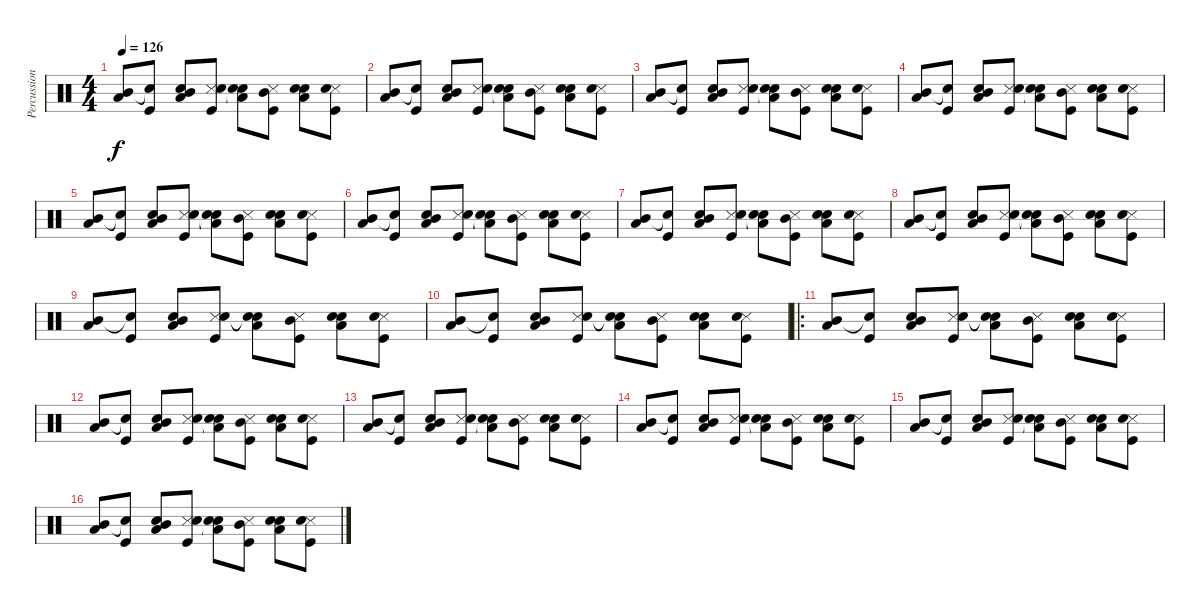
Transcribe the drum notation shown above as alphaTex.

\track ("Percussions" "Percussion") {instrument percussion}
\staff {score}
\articulation defaults
\ts (4 4)
\tempo 126
\clef neutral
\ks c
("Mid Tom (hit)" "Low Floor Tom (hit)").8{dy f} ("Snare (hit)"{t} "Kick (hit)").8 ("Snare (hit) 2" "Mid Tom (hit)" "Low Floor Tom (hit)").8 ("Snare (side stick) 3" "Electric Snare (hit)" "Kick (hit)").8 ("Snare (hit)"{t} "Snare (hit)"{t} "Low Floor Tom (hit)").8 ("Snare (side stick) 3" "Mid Tom (hit)" "Kick (hit)").8 ("Electric Snare (hit)" "Snare (hit) 2" "Low Floor Tom (hit)").8 ("Snare (side stick) 3" "Snare (hit) 2" "Kick (hit)").8 |
("Mid Tom (hit)" "Low Floor Tom (hit)").8 ("Snare (hit)"{t} "Kick (hit)").8 ("Snare (hit) 2" "Mid Tom (hit)" "Low Floor Tom (hit)").8 ("Snare (side stick) 3" "Electric Snare (hit)" "Kick (hit)").8 ("Snare (hit)"{t} "Snare (hit)"{t} "Low Floor Tom (hit)").8 ("Snare (side stick) 3" "Mid Tom (hit)" "Kick (hit)").8 ("Electric Snare (hit)" "Snare (hit) 2" "Low Floor Tom (hit)").8 ("Snare (side stick) 3" "Snare (hit) 2" "Kick (hit)").8 |
("Mid Tom (hit)" "Low Floor Tom (hit)").8 ("Snare (hit)"{t} "Kick (hit)").8 ("Snare (hit) 2" "Mid Tom (hit)" "Low Floor Tom (hit)").8 ("Snare (side stick) 3" "Electric Snare (hit)" "Kick (hit)").8 ("Snare (hit)"{t} "Snare (hit)"{t} "Low Floor Tom (hit)").8 ("Snare (side stick) 3" "Mid Tom (hit)" "Kick (hit)").8 ("Electric Snare (hit)" "Snare (hit) 2" "Low Floor Tom (hit)").8 ("Snare (side stick) 3" "Snare (hit) 2" "Kick (hit)").8 |
("Mid Tom (hit)" "Low Floor Tom (hit)").8 ("Snare (hit)"{t} "Kick (hit)").8 ("Snare (hit) 2" "Mid Tom (hit)" "Low Floor Tom (hit)").8 ("Snare (side stick) 3" "Electric Snare (hit)" "Kick (hit)").8 ("Snare (hit)"{t} "Snare (hit)"{t} "Low Floor Tom (hit)").8 ("Snare (side stick) 3" "Mid Tom (hit)" "Kick (hit)").8 ("Electric Snare (hit)" "Snare (hit) 2" "Low Floor Tom (hit)").8 ("Snare (side stick) 3" "Snare (hit) 2" "Kick (hit)").8 |
("Mid Tom (hit)" "Low Floor Tom (hit)").8 ("Snare (hit)"{t} "Kick (hit)").8 ("Snare (hit) 2" "Mid Tom (hit)" "Low Floor Tom (hit)").8 ("Snare (side stick) 3" "Electric Snare (hit)" "Kick (hit)").8 ("Snare (hit)"{t} "Snare (hit)"{t} "Low Floor Tom (hit)").8 ("Snare (side stick) 3" "Mid Tom (hit)" "Kick (hit)").8 ("Electric Snare (hit)" "Snare (hit) 2" "Low Floor Tom (hit)").8 ("Snare (side stick) 3" "Snare (hit) 2" "Kick (hit)").8 |
("Mid Tom (hit)" "Low Floor Tom (hit)").8 ("Snare (hit)"{t} "Kick (hit)").8 ("Snare (hit) 2" "Mid Tom (hit)" "Low Floor Tom (hit)").8 ("Snare (side stick) 3" "Electric Snare (hit)" "Kick (hit)").8 ("Snare (hit)"{t} "Snare (hit)"{t} "Low Floor Tom (hit)").8 ("Snare (side stick) 3" "Mid Tom (hit)" "Kick (hit)").8 ("Electric Snare (hit)" "Snare (hit) 2" "Low Floor Tom (hit)").8 ("Snare (side stick) 3" "Snare (hit) 2" "Kick (hit)").8 |
("Mid Tom (hit)" "Low Floor Tom (hit)").8 ("Snare (hit)"{t} "Kick (hit)").8 ("Snare (hit) 2" "Mid Tom (hit)" "Low Floor Tom (hit)").8 ("Snare (side stick) 3" "Electric Snare (hit)" "Kick (hit)").8 ("Snare (hit)"{t} "Snare (hit)"{t} "Low Floor Tom (hit)").8 ("Snare (side stick) 3" "Mid Tom (hit)" "Kick (hit)").8 ("Electric Snare (hit)" "Snare (hit) 2" "Low Floor Tom (hit)").8 ("Snare (side stick) 3" "Snare (hit) 2" "Kick (hit)").8 |
("Mid Tom (hit)" "Low Floor Tom (hit)").8 ("Snare (hit)"{t} "Kick (hit)").8 ("Snare (hit) 2" "Mid Tom (hit)" "Low Floor Tom (hit)").8 ("Snare (side stick) 3" "Electric Snare (hit)" "Kick (hit)").8 ("Snare (hit)"{t} "Snare (hit)"{t} "Low Floor Tom (hit)").8 ("Snare (side stick) 3" "Mid Tom (hit)" "Kick (hit)").8 ("Electric Snare (hit)" "Snare (hit) 2" "Low Floor Tom (hit)").8 ("Snare (side stick) 3" "Snare (hit) 2" "Kick (hit)").8 |
("Mid Tom (hit)" "Low Floor Tom (hit)").8 ("Snare (hit)"{t} "Kick (hit)").8 ("Snare (hit) 2" "Mid Tom (hit)" "Low Floor Tom (hit)").8 ("Snare (side stick) 3" "Electric Snare (hit)" "Kick (hit)").8 ("Snare (hit)"{t} "Snare (hit)"{t} "Low Floor Tom (hit)").8 ("Snare (side stick) 3" "Mid Tom (hit)" "Kick (hit)").8 ("Electric Snare (hit)" "Snare (hit) 2" "Low Floor Tom (hit)").8 ("Snare (side stick) 3" "Snare (hit) 2" "Kick (hit)").8 |
("Mid Tom (hit)" "Low Floor Tom (hit)").8 ("Snare (hit)"{t} "Kick (hit)").8 ("Snare (hit) 2" "Mid Tom (hit)" "Low Floor Tom (hit)").8 ("Snare (side stick) 3" "Electric Snare (hit)" "Kick (hit)").8 ("Snare (hit)"{t} "Snare (hit)"{t} "Low Floor Tom (hit)").8 ("Snare (side stick) 3" "Mid Tom (hit)" "Kick (hit)").8 ("Electric Snare (hit)" "Snare (hit) 2" "Low Floor Tom (hit)").8 ("Snare (side stick) 3" "Snare (hit) 2" "Kick (hit)").8 |
\ro
("Mid Tom (hit)" "Low Floor Tom (hit)").8 ("Snare (hit)"{t} "Kick (hit)").8 ("Snare (hit) 2" "Mid Tom (hit)" "Low Floor Tom (hit)").8 ("Snare (side stick) 3" "Electric Snare (hit)" "Kick (hit)").8 ("Snare (hit)"{t} "Snare (hit)"{t} "Low Floor Tom (hit)").8 ("Snare (side stick) 3" "Mid Tom (hit)" "Kick (hit)").8 ("Electric Snare (hit)" "Snare (hit) 2" "Low Floor Tom (hit)").8 ("Snare (side stick) 3" "Snare (hit) 2" "Kick (hit)").8 |
("Mid Tom (hit)" "Low Floor Tom (hit)").8 ("Snare (hit)"{t} "Kick (hit)").8 ("Snare (hit) 2" "Mid Tom (hit)" "Low Floor Tom (hit)").8 ("Snare (side stick) 3" "Electric Snare (hit)" "Kick (hit)").8 ("Snare (hit)"{t} "Snare (hit)"{t} "Low Floor Tom (hit)").8 ("Snare (side stick) 3" "Mid Tom (hit)" "Kick (hit)").8 ("Electric Snare (hit)" "Snare (hit) 2" "Low Floor Tom (hit)").8 ("Snare (side stick) 3" "Snare (hit) 2" "Kick (hit)").8 |
("Mid Tom (hit)" "Low Floor Tom (hit)").8 ("Snare (hit)"{t} "Kick (hit)").8 ("Snare (hit) 2" "Mid Tom (hit)" "Low Floor Tom (hit)").8 ("Snare (side stick) 3" "Electric Snare (hit)" "Kick (hit)").8 ("Snare (hit)"{t} "Snare (hit)"{t} "Low Floor Tom (hit)").8 ("Snare (side stick) 3" "Mid Tom (hit)" "Kick (hit)").8 ("Electric Snare (hit)" "Snare (hit) 2" "Low Floor Tom (hit)").8 ("Snare (side stick) 3" "Snare (hit) 2" "Kick (hit)").8 |
("Mid Tom (hit)" "Low Floor Tom (hit)").8 ("Snare (hit)"{t} "Kick (hit)").8 ("Snare (hit) 2" "Mid Tom (hit)" "Low Floor Tom (hit)").8 ("Snare (side stick) 3" "Electric Snare (hit)" "Kick (hit)").8 ("Snare (hit)"{t} "Snare (hit)"{t} "Low Floor Tom (hit)").8 ("Snare (side stick) 3" "Mid Tom (hit)" "Kick (hit)").8 ("Electric Snare (hit)" "Snare (hit) 2" "Low Floor Tom (hit)").8 ("Snare (side stick) 3" "Snare (hit) 2" "Kick (hit)").8 |
("Mid Tom (hit)" "Low Floor Tom (hit)").8 ("Snare (hit)"{t} "Kick (hit)").8 ("Snare (hit) 2" "Mid Tom (hit)" "Low Floor Tom (hit)").8 ("Snare (side stick) 3" "Electric Snare (hit)" "Kick (hit)").8 ("Snare (hit)"{t} "Snare (hit)"{t} "Low Floor Tom (hit)").8 ("Snare (side stick) 3" "Mid Tom (hit)" "Kick (hit)").8 ("Electric Snare (hit)" "Snare (hit) 2" "Low Floor Tom (hit)").8 ("Snare (side stick) 3" "Snare (hit) 2" "Kick (hit)").8 |
("Mid Tom (hit)" "Low Floor Tom (hit)").8 ("Snare (hit)"{t} "Kick (hit)").8 ("Snare (hit) 2" "Mid Tom (hit)" "Low Floor Tom (hit)").8 ("Snare (side stick) 3" "Electric Snare (hit)" "Kick (hit)").8 ("Snare (hit)"{t} "Snare (hit)"{t} "Low Floor Tom (hit)").8 ("Snare (side stick) 3" "Mid Tom (hit)" "Kick (hit)").8 ("Electric Snare (hit)" "Snare (hit) 2" "Low Floor Tom (hit)").8 ("Snare (side stick) 3" "Snare (hit) 2" "Kick (hit)").8
